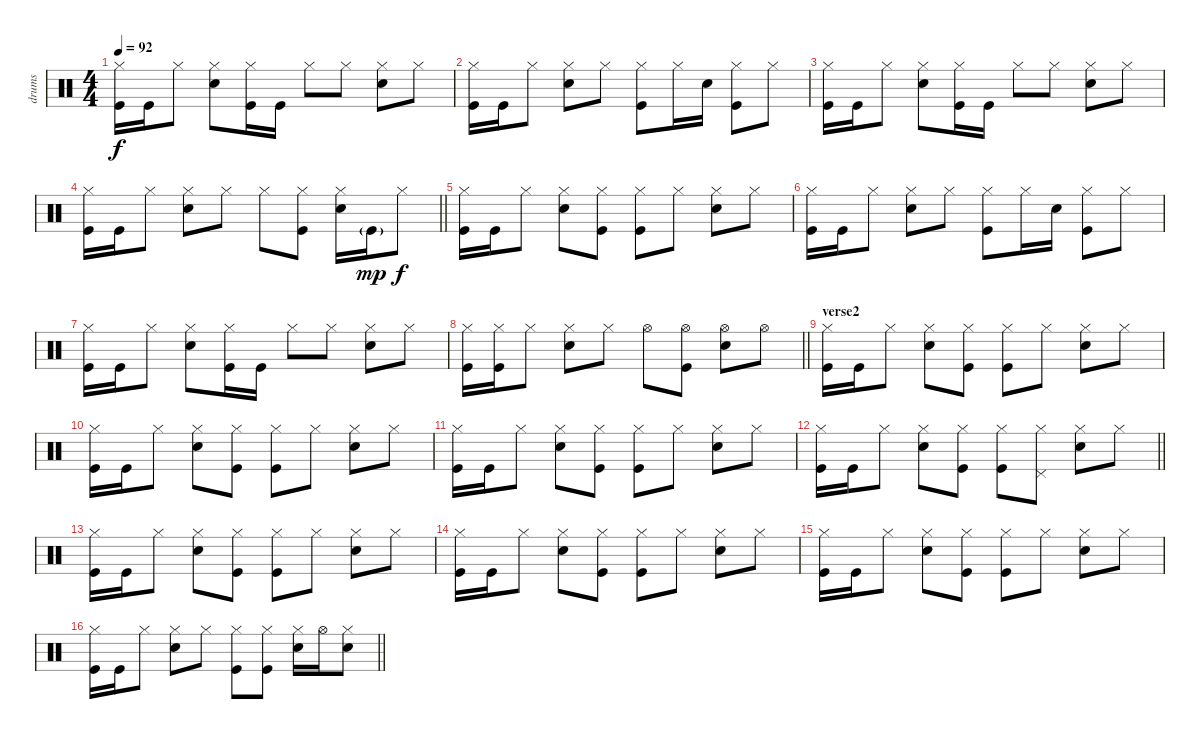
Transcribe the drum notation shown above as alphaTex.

\track ("drums" "drums") {instrument percussion}
\staff {score}
\articulation defaults
\ts (4 4)
\tempo 92
\clef neutral
\ks c
("Hi-Hat (closed)" "Kick (hit)").16{dy f} "Kick (hit)".16 "Hi-Hat (closed)".8 ("Hi-Hat (closed)" "Snare (hit) 2").8 ("Hi-Hat (closed)" "Kick (hit)").16 "Kick (hit)".16 "Hi-Hat (closed)".8 "Hi-Hat (closed)".8 ("Hi-Hat (closed)" "Snare (hit) 2").8 "Hi-Hat (closed)".8 |
("Hi-Hat (closed)" "Kick (hit)").16 "Kick (hit)".16 "Hi-Hat (closed)".8 ("Hi-Hat (closed)" "Snare (hit) 2").8 "Hi-Hat (closed)".8 ("Hi-Hat (closed)" "Kick (hit)").8 "Hi-Hat (closed)".16 "Snare (hit) 2".16 ("Hi-Hat (closed)" "Kick (hit)").8 "Hi-Hat (closed)".8 |
("Hi-Hat (closed)" "Kick (hit)").16 "Kick (hit)".16 "Hi-Hat (closed)".8 ("Hi-Hat (closed)" "Snare (hit) 2").8 ("Hi-Hat (closed)" "Kick (hit)").16 "Kick (hit)".16 "Hi-Hat (closed)".8 "Hi-Hat (closed)".8 ("Hi-Hat (closed)" "Snare (hit) 2").8 "Hi-Hat (closed)".8 |
\barLineRight lightlight
("Hi-Hat (closed)" "Kick (hit)").16 "Kick (hit)".16 "Hi-Hat (closed)".8 ("Hi-Hat (closed)" "Snare (hit) 2").8 "Hi-Hat (closed)".8 "Hi-Hat (closed)".8 ("Hi-Hat (closed)" "Kick (hit)").8 ("Hi-Hat (closed)" "Snare (hit) 2").16 "Kick (hit)"{g}.16{dy mp} "Hi-Hat (closed)".8{dy f} |
("Hi-Hat (closed)" "Kick (hit)").16 "Kick (hit)".16 "Hi-Hat (closed)".8 ("Hi-Hat (closed)" "Snare (hit) 2").8 ("Hi-Hat (closed)" "Kick (hit)").8 ("Hi-Hat (closed)" "Kick (hit)").8 "Hi-Hat (closed)".8 ("Hi-Hat (closed)" "Snare (hit) 2").8 "Hi-Hat (closed)".8 |
("Hi-Hat (closed)" "Kick (hit)").16 "Kick (hit)".16 "Hi-Hat (closed)".8 ("Hi-Hat (closed)" "Snare (hit) 2").8 "Hi-Hat (closed)".8 ("Hi-Hat (closed)" "Kick (hit)").8 "Hi-Hat (closed)".16 "Snare (hit) 2".16 ("Hi-Hat (closed)" "Kick (hit)").8 "Hi-Hat (closed)".8 |
("Hi-Hat (closed)" "Kick (hit)").16 "Kick (hit)".16 "Hi-Hat (closed)".8 ("Hi-Hat (closed)" "Snare (hit) 2").8 ("Hi-Hat (closed)" "Kick (hit)").16 "Kick (hit)".16 "Hi-Hat (closed)".8 "Hi-Hat (closed)".8 ("Hi-Hat (closed)" "Snare (hit) 2").8 "Hi-Hat (closed)".8 |
\barLineRight lightlight
("Hi-Hat (closed)" "Kick (hit)").16 ("Hi-Hat (closed)" "Kick (hit)").16 "Hi-Hat (closed)".8 ("Hi-Hat (closed)" "Snare (hit) 2").8 "Hi-Hat (closed)".8 "Hi-Hat (open)".8 ("Hi-Hat (open)" "Kick (hit)").8 ("Hi-Hat (open)" "Snare (hit) 2").8 "Hi-Hat (open)".8 |
\section ("" "verse2")
("Hi-Hat (closed)" "Kick (hit)").16 "Kick (hit)".16 "Hi-Hat (closed)".8 ("Hi-Hat (closed)" "Snare (hit) 2").8 ("Hi-Hat (closed)" "Kick (hit)").8 ("Hi-Hat (closed)" "Kick (hit)").8 "Hi-Hat (closed)".8 ("Hi-Hat (closed)" "Snare (hit) 2").8 "Hi-Hat (closed)".8 |
("Hi-Hat (closed)" "Kick (hit)").16 "Kick (hit)".16 "Hi-Hat (closed)".8 ("Hi-Hat (closed)" "Snare (hit) 2").8 ("Hi-Hat (closed)" "Kick (hit)").8 ("Hi-Hat (closed)" "Kick (hit)").8 "Hi-Hat (closed)".8 ("Hi-Hat (closed)" "Snare (hit) 2").8 "Hi-Hat (closed)".8 |
("Hi-Hat (closed)" "Kick (hit)").16 "Kick (hit)".16 "Hi-Hat (closed)".8 ("Hi-Hat (closed)" "Snare (hit) 2").8 ("Hi-Hat (closed)" "Kick (hit)").8 ("Hi-Hat (closed)" "Kick (hit)").8 "Hi-Hat (closed)".8 ("Hi-Hat (closed)" "Snare (hit) 2").8 "Hi-Hat (closed)".8 |
\barLineRight lightlight
("Hi-Hat (closed)" "Kick (hit)").16 "Kick (hit)".16 "Hi-Hat (closed)".8 ("Hi-Hat (closed)" "Snare (hit) 2").8 ("Hi-Hat (closed)" "Kick (hit)").8 ("Hi-Hat (closed)" "Kick (hit)").8 ("Hi-Hat (closed)" "Pedal Hi-Hat (hit)").8 ("Hi-Hat (closed)" "Snare (hit) 2").8 "Hi-Hat (closed)".8 |
("Hi-Hat (closed)" "Kick (hit)").16 "Kick (hit)".16 "Hi-Hat (closed)".8 ("Hi-Hat (closed)" "Snare (hit) 2").8 ("Hi-Hat (closed)" "Kick (hit)").8 ("Hi-Hat (closed)" "Kick (hit)").8 "Hi-Hat (closed)".8 ("Hi-Hat (closed)" "Snare (hit) 2").8 "Hi-Hat (closed)".8 |
("Hi-Hat (closed)" "Kick (hit)").16 "Kick (hit)".16 "Hi-Hat (closed)".8 ("Hi-Hat (closed)" "Snare (hit) 2").8 ("Hi-Hat (closed)" "Kick (hit)").8 ("Hi-Hat (closed)" "Kick (hit)").8 "Hi-Hat (closed)".8 ("Hi-Hat (closed)" "Snare (hit) 2").8 "Hi-Hat (closed)".8 |
("Hi-Hat (closed)" "Kick (hit)").16 "Kick (hit)".16 "Hi-Hat (closed)".8 ("Hi-Hat (closed)" "Snare (hit) 2").8 ("Hi-Hat (closed)" "Kick (hit)").8 ("Hi-Hat (closed)" "Kick (hit)").8 "Hi-Hat (closed)".8 ("Hi-Hat (closed)" "Snare (hit) 2").8 "Hi-Hat (closed)".8 |
\barLineRight lightlight
("Hi-Hat (closed)" "Kick (hit)").16 "Kick (hit)".16 "Hi-Hat (closed)".8 ("Hi-Hat (closed)" "Snare (hit) 2").8 "Hi-Hat (closed)".8 ("Hi-Hat (closed)" "Kick (hit)").8 ("Hi-Hat (closed)" "Kick (hit)").8 ("Hi-Hat (closed)" "Snare (hit) 2").16 "Hi-Hat (open)".16 ("Hi-Hat (closed)" "Snare (hit) 2").8
